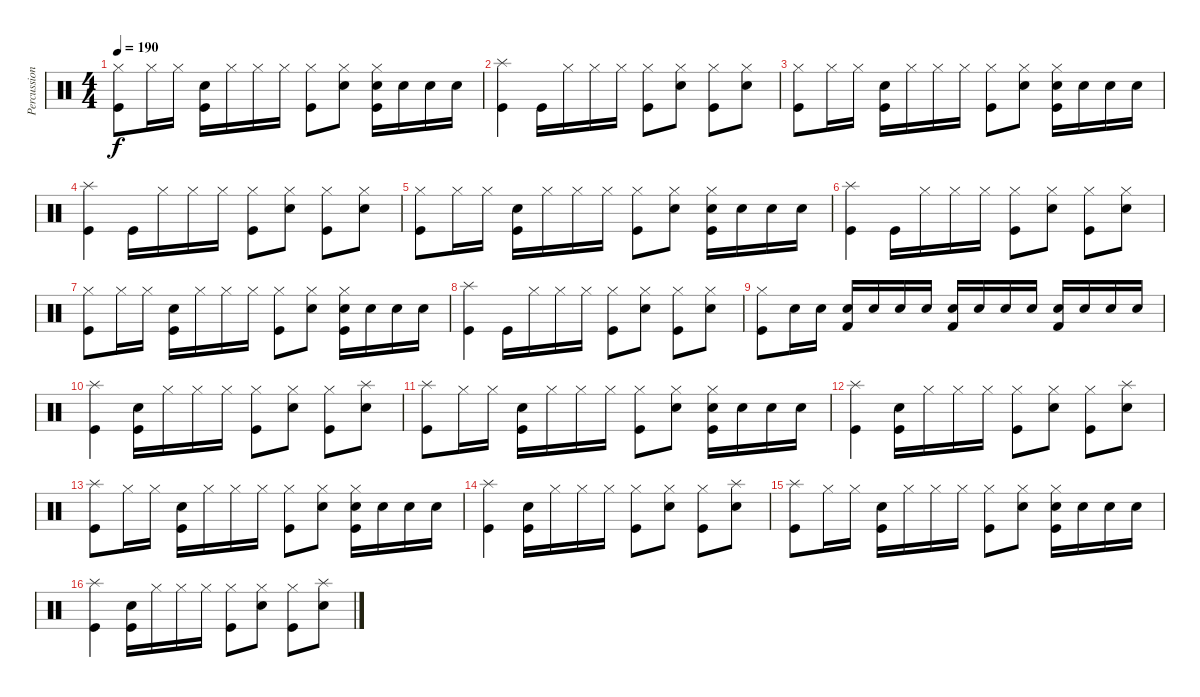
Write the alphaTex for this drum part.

\track ("Percussions" "Percussion") {instrument percussion}
\staff {score}
\articulation defaults
\ts (4 4)
\tempo 190
\clef neutral
\ks c
("Hi-Hat (closed)" "Kick (hit)").8{dy f} "Hi-Hat (closed)".16 "Hi-Hat (closed)".16 ("Snare (hit) 2" "Kick (hit)").16 "Hi-Hat (closed)".16 "Hi-Hat (closed)".16 "Hi-Hat (closed)".16 ("Hi-Hat (closed)" "Kick (hit)").8 ("Hi-Hat (closed)" "Snare (hit) 2").8 ("Hi-Hat (closed)" "Snare (hit) 2" "Kick (hit)").16 "Snare (hit) 2".16 "Snare (hit) 2".16 "Snare (hit) 2".16 |
("Splash (hit)" "Kick (hit)").4 "Kick (hit)".16 "Hi-Hat (closed)".16 "Hi-Hat (closed)".16 "Hi-Hat (closed)".16 ("Hi-Hat (closed)" "Kick (hit)").8 ("Hi-Hat (closed)" "Snare (hit) 2").8 ("Hi-Hat (closed)" "Kick (hit)").8 ("Hi-Hat (closed)" "Snare (hit) 2").8 |
("Hi-Hat (closed)" "Kick (hit)").8 "Hi-Hat (closed)".16 "Hi-Hat (closed)".16 ("Snare (hit) 2" "Kick (hit)").16 "Hi-Hat (closed)".16 "Hi-Hat (closed)".16 "Hi-Hat (closed)".16 ("Hi-Hat (closed)" "Kick (hit)").8 ("Hi-Hat (closed)" "Snare (hit) 2").8 ("Hi-Hat (closed)" "Snare (hit) 2" "Kick (hit)").16 "Snare (hit) 2".16 "Snare (hit) 2".16 "Snare (hit) 2".16 |
("Splash (hit)" "Kick (hit)").4 "Kick (hit)".16 "Hi-Hat (closed)".16 "Hi-Hat (closed)".16 "Hi-Hat (closed)".16 ("Hi-Hat (closed)" "Kick (hit)").8 ("Hi-Hat (closed)" "Snare (hit) 2").8 ("Hi-Hat (closed)" "Kick (hit)").8 ("Hi-Hat (closed)" "Snare (hit) 2").8 |
("Hi-Hat (closed)" "Kick (hit)").8 "Hi-Hat (closed)".16 "Hi-Hat (closed)".16 ("Snare (hit) 2" "Kick (hit)").16 "Hi-Hat (closed)".16 "Hi-Hat (closed)".16 "Hi-Hat (closed)".16 ("Hi-Hat (closed)" "Kick (hit)").8 ("Hi-Hat (closed)" "Snare (hit) 2").8 ("Hi-Hat (closed)" "Snare (hit) 2" "Kick (hit)").16 "Snare (hit) 2".16 "Snare (hit) 2".16 "Snare (hit) 2".16 |
("Splash (hit)" "Kick (hit)").4 "Kick (hit)".16 "Hi-Hat (closed)".16 "Hi-Hat (closed)".16 "Hi-Hat (closed)".16 ("Hi-Hat (closed)" "Kick (hit)").8 ("Hi-Hat (closed)" "Snare (hit) 2").8 ("Hi-Hat (closed)" "Kick (hit)").8 ("Hi-Hat (closed)" "Snare (hit) 2").8 |
("Hi-Hat (closed)" "Kick (hit)").8 "Hi-Hat (closed)".16 "Hi-Hat (closed)".16 ("Snare (hit) 2" "Kick (hit)").16 "Hi-Hat (closed)".16 "Hi-Hat (closed)".16 "Hi-Hat (closed)".16 ("Hi-Hat (closed)" "Kick (hit)").8 ("Hi-Hat (closed)" "Snare (hit) 2").8 ("Hi-Hat (closed)" "Snare (hit) 2" "Kick (hit)").16 "Snare (hit) 2".16 "Snare (hit) 2".16 "Snare (hit) 2".16 |
("Splash (hit)" "Kick (hit)").4 "Kick (hit)".16 "Hi-Hat (closed)".16 "Hi-Hat (closed)".16 "Hi-Hat (closed)".16 ("Hi-Hat (closed)" "Kick (hit)").8 ("Hi-Hat (closed)" "Snare (hit) 2").8 ("Hi-Hat (closed)" "Kick (hit)").8 ("Hi-Hat (closed)" "Snare (hit) 2").8 |
("Hi-Hat (closed)" "Kick (hit)").8 "Snare (hit) 2".16 "Snare (hit) 2".16 ("Snare (hit) 2" "Kick (hit) 2").16 "Snare (hit) 2".16 "Snare (hit) 2".16 "Snare (hit) 2".16 ("Snare (hit) 2" "Kick (hit) 2").16 "Snare (hit) 2".16 "Snare (hit) 2".16 "Snare (hit) 2".16 ("Snare (hit) 2" "Kick (hit) 2").16 "Snare (hit) 2".16 "Snare (hit) 2".16 "Snare (hit) 2".16 |
("Splash (hit)" "Kick (hit)").4 ("Snare (hit) 2" "Kick (hit)").16 "Hi-Hat (closed)".16 "Hi-Hat (closed)".16 "Hi-Hat (closed)".16 ("Hi-Hat (closed)" "Kick (hit)").8 ("Hi-Hat (closed)" "Snare (hit) 2").8 ("Hi-Hat (closed)" "Kick (hit)").8 ("Splash (hit)" "Snare (hit) 2").8 |
("Splash (hit)" "Kick (hit)").8 "Hi-Hat (closed)".16 "Hi-Hat (closed)".16 ("Snare (hit) 2" "Kick (hit)").16 "Hi-Hat (closed)".16 "Hi-Hat (closed)".16 "Hi-Hat (closed)".16 ("Hi-Hat (closed)" "Kick (hit)").8 ("Hi-Hat (closed)" "Snare (hit) 2").8 ("Hi-Hat (closed)" "Snare (hit) 2" "Kick (hit)").16 "Snare (hit) 2".16 "Snare (hit) 2".16 "Snare (hit) 2".16 |
("Splash (hit)" "Kick (hit)").4 ("Snare (hit) 2" "Kick (hit)").16 "Hi-Hat (closed)".16 "Hi-Hat (closed)".16 "Hi-Hat (closed)".16 ("Hi-Hat (closed)" "Kick (hit)").8 ("Hi-Hat (closed)" "Snare (hit) 2").8 ("Hi-Hat (closed)" "Kick (hit)").8 ("Splash (hit)" "Snare (hit) 2").8 |
("Splash (hit)" "Kick (hit)").8 "Hi-Hat (closed)".16 "Hi-Hat (closed)".16 ("Snare (hit) 2" "Kick (hit)").16 "Hi-Hat (closed)".16 "Hi-Hat (closed)".16 "Hi-Hat (closed)".16 ("Hi-Hat (closed)" "Kick (hit)").8 ("Hi-Hat (closed)" "Snare (hit) 2").8 ("Hi-Hat (closed)" "Snare (hit) 2" "Kick (hit)").16 "Snare (hit) 2".16 "Snare (hit) 2".16 "Snare (hit) 2".16 |
("Splash (hit)" "Kick (hit)").4 ("Snare (hit) 2" "Kick (hit)").16 "Hi-Hat (closed)".16 "Hi-Hat (closed)".16 "Hi-Hat (closed)".16 ("Hi-Hat (closed)" "Kick (hit)").8 ("Hi-Hat (closed)" "Snare (hit) 2").8 ("Hi-Hat (closed)" "Kick (hit)").8 ("Splash (hit)" "Snare (hit) 2").8 |
("Splash (hit)" "Kick (hit)").8 "Hi-Hat (closed)".16 "Hi-Hat (closed)".16 ("Snare (hit) 2" "Kick (hit)").16 "Hi-Hat (closed)".16 "Hi-Hat (closed)".16 "Hi-Hat (closed)".16 ("Hi-Hat (closed)" "Kick (hit)").8 ("Hi-Hat (closed)" "Snare (hit) 2").8 ("Hi-Hat (closed)" "Snare (hit) 2" "Kick (hit)").16 "Snare (hit) 2".16 "Snare (hit) 2".16 "Snare (hit) 2".16 |
("Splash (hit)" "Kick (hit)").4 ("Snare (hit) 2" "Kick (hit)").16 "Hi-Hat (closed)".16 "Hi-Hat (closed)".16 "Hi-Hat (closed)".16 ("Hi-Hat (closed)" "Kick (hit)").8 ("Hi-Hat (closed)" "Snare (hit) 2").8 ("Hi-Hat (closed)" "Kick (hit)").8 ("Splash (hit)" "Snare (hit) 2").8
